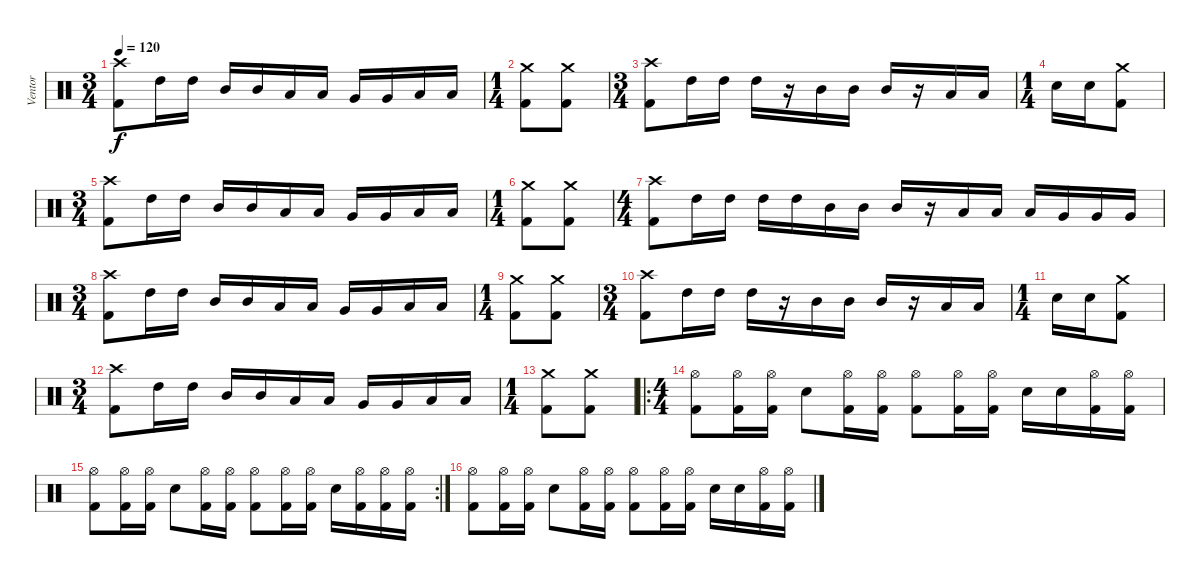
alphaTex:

\track ("Ventor" "Ventor") {instrument percussion}
\staff {score}
\articulation defaults
\ts (3 4)
\tempo 120
\clef neutral
\ks c
("Crash high (hit)" "Kick (hit) 2").8{dy f} "High Tom (hit)".16 "High Tom (hit)".16 "Mid Tom (hit)".16 "Mid Tom (hit)".16 "Low Tom (hit)".16 "Low Tom (hit)".16 "Very Low Tom (hit)".16 "Very Low Tom (hit)".16 "Low Floor Tom (hit)".16 "Low Floor Tom (hit)".16 |
\ts (1 4)
("Crash medium (hit)" "Kick (hit) 2").8 ("Crash medium (hit)" "Kick (hit) 2").8 |
\ts (3 4)
("Crash high (hit)" "Kick (hit) 2").8 "High Tom (hit)".16 "High Tom (hit)".16 "High Tom (hit)".16 r.16 "Mid Tom (hit)".16 "Mid Tom (hit)".16 "Mid Tom (hit)".16 r.16 "Low Tom (hit)".16 "Low Tom (hit)".16 |
\ts (1 4)
"Snare (hit) 2".16 "Snare (hit) 2".16 ("Crash medium (hit)" "Kick (hit) 2").8 |
\ts (3 4)
("Crash high (hit)" "Kick (hit) 2").8 "High Tom (hit)".16 "High Tom (hit)".16 "Mid Tom (hit)".16 "Mid Tom (hit)".16 "Low Tom (hit)".16 "Low Tom (hit)".16 "Very Low Tom (hit)".16 "Very Low Tom (hit)".16 "Low Floor Tom (hit)".16 "Low Floor Tom (hit)".16 |
\ts (1 4)
("Crash medium (hit)" "Kick (hit) 2").8 ("Crash medium (hit)" "Kick (hit) 2").8 |
\ts (4 4)
("Crash high (hit)" "Kick (hit) 2").8 "High Tom (hit)".16 "High Tom (hit)".16 "High Tom (hit)".16 "High Tom (hit)".16 "Mid Tom (hit)".16 "Mid Tom (hit)".16 "Mid Tom (hit)".16 r.16 "Low Tom (hit)".16 "Low Tom (hit)".16 "Low Tom (hit)".16 "Very Low Tom (hit)".16 "Very Low Tom (hit)".16 "Very Low Tom (hit)".16 |
\ts (3 4)
("Crash high (hit)" "Kick (hit) 2").8 "High Tom (hit)".16 "High Tom (hit)".16 "Mid Tom (hit)".16 "Mid Tom (hit)".16 "Low Tom (hit)".16 "Low Tom (hit)".16 "Very Low Tom (hit)".16 "Very Low Tom (hit)".16 "Low Floor Tom (hit)".16 "Low Floor Tom (hit)".16 |
\ts (1 4)
("Crash medium (hit)" "Kick (hit) 2").8 ("Crash medium (hit)" "Kick (hit) 2").8 |
\ts (3 4)
("Crash high (hit)" "Kick (hit) 2").8 "High Tom (hit)".16 "High Tom (hit)".16 "High Tom (hit)".16 r.16 "Mid Tom (hit)".16 "Mid Tom (hit)".16 "Mid Tom (hit)".16 r.16 "Low Tom (hit)".16 "Low Tom (hit)".16 |
\ts (1 4)
"Snare (hit) 2".16 "Snare (hit) 2".16 ("Crash medium (hit)" "Kick (hit) 2").8 |
\ts (3 4)
("Crash high (hit)" "Kick (hit) 2").8 "High Tom (hit)".16 "High Tom (hit)".16 "Mid Tom (hit)".16 "Mid Tom (hit)".16 "Low Tom (hit)".16 "Low Tom (hit)".16 "Very Low Tom (hit)".16 "Very Low Tom (hit)".16 "Low Floor Tom (hit)".16 "Low Floor Tom (hit)".16 |
\ts (1 4)
("Crash medium (hit)" "Kick (hit) 2").8 ("Crash medium (hit)" "Kick (hit) 2").8 |
\ro
\ts (4 4)
("Hi-Hat (open)" "Kick (hit) 2").8 ("Hi-Hat (open)" "Kick (hit) 2").16 ("Hi-Hat (open)" "Kick (hit) 2").16 "Snare (hit) 2".8 ("Hi-Hat (open)" "Kick (hit) 2").16 ("Hi-Hat (open)" "Kick (hit) 2").16 ("Hi-Hat (open)" "Kick (hit) 2").8 ("Hi-Hat (open)" "Kick (hit) 2").16 ("Hi-Hat (open)" "Kick (hit) 2").16 "Snare (hit) 2".16 "Snare (hit) 2".16 ("Hi-Hat (open)" "Kick (hit) 2").16 ("Hi-Hat (open)" "Kick (hit) 2").16 |
\rc 2
("Hi-Hat (open)" "Kick (hit) 2").8 ("Hi-Hat (open)" "Kick (hit) 2").16 ("Hi-Hat (open)" "Kick (hit) 2").16 "Snare (hit) 2".8 ("Hi-Hat (open)" "Kick (hit) 2").16 ("Hi-Hat (open)" "Kick (hit) 2").16 ("Hi-Hat (open)" "Kick (hit) 2").8 ("Hi-Hat (open)" "Kick (hit) 2").16 ("Hi-Hat (open)" "Kick (hit) 2").16 "Snare (hit) 2".16 ("Hi-Hat (open)" "Kick (hit) 2").16 ("Hi-Hat (open)" "Kick (hit) 2").16 ("Hi-Hat (open)" "Kick (hit) 2").16 |
("Hi-Hat (open)" "Kick (hit) 2").8 ("Hi-Hat (open)" "Kick (hit) 2").16 ("Hi-Hat (open)" "Kick (hit) 2").16 "Snare (hit) 2".8 ("Hi-Hat (open)" "Kick (hit) 2").16 ("Hi-Hat (open)" "Kick (hit) 2").16 ("Hi-Hat (open)" "Kick (hit) 2").8 ("Hi-Hat (open)" "Kick (hit) 2").16 ("Hi-Hat (open)" "Kick (hit) 2").16 "Snare (hit) 2".16 "Snare (hit) 2".16 ("Hi-Hat (open)" "Kick (hit) 2").16 ("Hi-Hat (open)" "Kick (hit) 2").16
